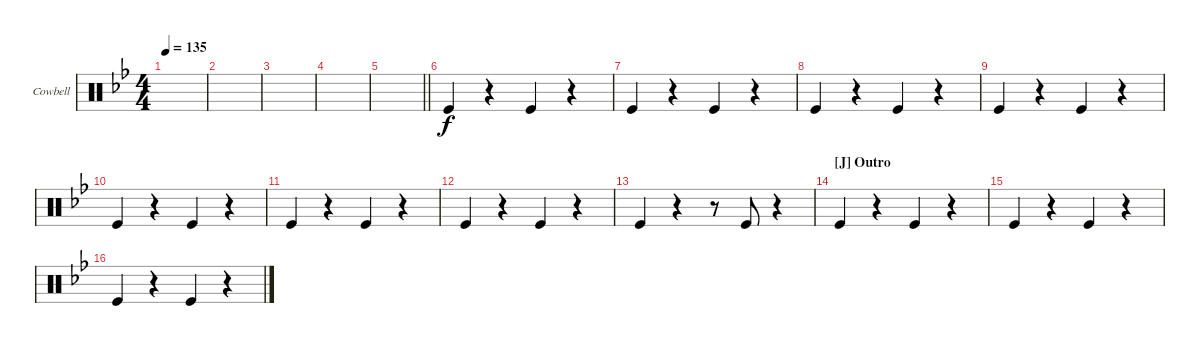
\defaultSystemsLayout 4
\bracketExtendMode groupsimilarinstruments
\firstSystemTrackNameOrientation horizontal
\otherSystemsTrackNameOrientation horizontal
\track ("Cowbell" "Cowbell") {instrument percussion}
\staff {score}
\articulation defaults
\ts (4 4)
\tempo 135
\clef neutral
\scale
0.333333
\ks bb
|
\scale
0.333333 |
\scale
0.333333 |
\scale
0.333333 |
\scale
0.333333
\barLineRight lightlight
|
\scale
0.333333 "Kick (hit)".4 r.4 "Kick (hit)".4 r.4 |
\scale
0.333333 "Kick (hit)".4 r.4 "Kick (hit)".4 r.4 |
\scale
0.333333 "Kick (hit)".4 r.4 "Kick (hit)".4 r.4 |
\scale
0.333333 "Kick (hit)".4 r.4 "Kick (hit)".4 r.4 |
\scale
0.333333 "Kick (hit)".4 r.4 "Kick (hit)".4 r.4 |
\scale
0.333333 "Kick (hit)".4 r.4 "Kick (hit)".4 r.4 |
\scale
0.333333 "Kick (hit)".4 r.4 "Kick (hit)".4 r.4 |
\scale
0.333333 "Kick (hit)".4 r.4 r.8 "Kick (hit)".8 r.4 |
\section ("J" "Outro")
\scale
0.333333 "Kick (hit)".4 r.4 "Kick (hit)".4 r.4 |
\scale
0.333333 "Kick (hit)".4 r.4 "Kick (hit)".4 r.4 |
\scale
0.333333 "Kick (hit)".4 r.4 "Kick (hit)".4 r.4
